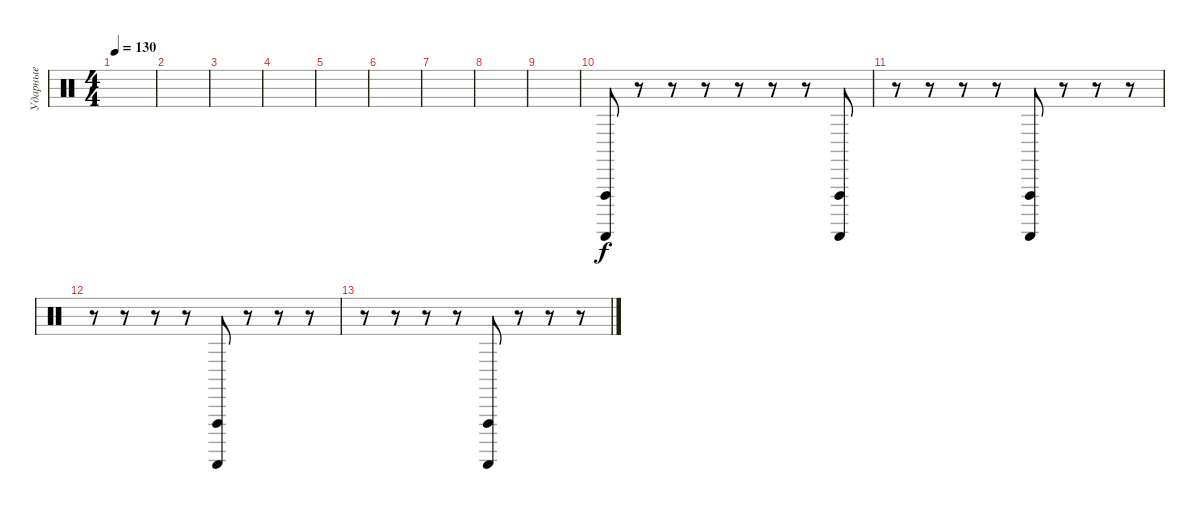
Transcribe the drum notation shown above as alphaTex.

\track ("Ударные" "Ударные") {instrument percussion}
\staff {score}
\articulation defaults
\ts (4 4)
\tempo 130
\clef neutral
\ks c
|
|
|
|
|
|
|
|
|
("Vibraslap (hit)" "Guiro (scrap-return)").8 r.8 r.8 r.8 r.8 r.8 r.8 ("Vibraslap (hit)" "Guiro (scrap-return)").8 |
r.8 r.8 r.8 r.8 ("Vibraslap (hit)" "Guiro (scrap-return)").8 r.8 r.8 r.8 |
r.8 r.8 r.8 r.8 ("Vibraslap (hit)" "Guiro (scrap-return)").8 r.8 r.8 r.8 |
r.8 r.8 r.8 r.8 ("Vibraslap (hit)" "Guiro (scrap-return)").8 r.8 r.8 r.8
